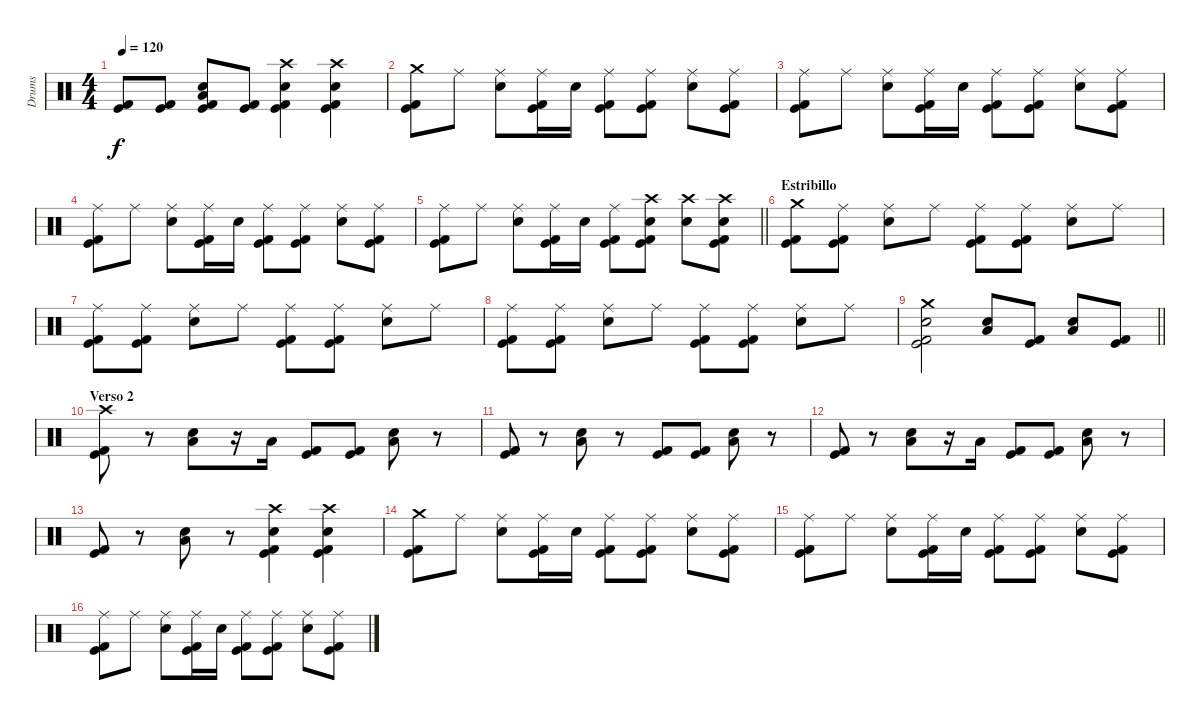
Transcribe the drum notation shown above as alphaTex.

\track ("Drums" "Drums") {instrument percussion}
\staff {score}
\articulation defaults
\ts (4 4)
\tempo 120
\clef neutral
\ks c
("Kick (hit)" "Kick (hit) 2").8{dy f} ("Kick (hit)" "Kick (hit) 2").8 ("Electric Snare (hit)" "Low Tom (hit)" "Kick (hit)" "Kick (hit) 2").8 ("Kick (hit)" "Kick (hit) 2").8 ("Crash high (hit)" "Electric Snare (hit)" "Kick (hit)" "Kick (hit) 2").4 ("Crash high (hit)" "Electric Snare (hit)" "Kick (hit)" "Kick (hit) 2").4 |
("Crash medium (hit)" "Kick (hit)" "Kick (hit) 2").8 "Ride (middle)".8 ("Ride (middle)" "Electric Snare (hit)").8 ("Ride (middle)" "Kick (hit)" "Kick (hit) 2").16 "Electric Snare (hit)".16 ("Ride (middle)" "Kick (hit)" "Kick (hit) 2").8 ("Ride (middle)" "Kick (hit)" "Kick (hit) 2").8 ("Ride (middle)" "Electric Snare (hit)").8 ("Ride (middle)" "Kick (hit)" "Kick (hit) 2").8 |
("Ride (middle)" "Kick (hit)" "Kick (hit) 2").8 "Ride (middle)".8 ("Ride (middle)" "Electric Snare (hit)").8 ("Ride (middle)" "Kick (hit)" "Kick (hit) 2").16 "Electric Snare (hit)".16 ("Ride (middle)" "Kick (hit)" "Kick (hit) 2").8 ("Ride (middle)" "Kick (hit)" "Kick (hit) 2").8 ("Ride (middle)" "Electric Snare (hit)").8 ("Ride (middle)" "Kick (hit)" "Kick (hit) 2").8 |
("Ride (middle)" "Kick (hit)" "Kick (hit) 2").8 "Ride (middle)".8 ("Ride (middle)" "Electric Snare (hit)").8 ("Ride (middle)" "Kick (hit)" "Kick (hit) 2").16 "Electric Snare (hit)".16 ("Ride (middle)" "Kick (hit)" "Kick (hit) 2").8 ("Ride (middle)" "Kick (hit)" "Kick (hit) 2").8 ("Ride (middle)" "Electric Snare (hit)").8 ("Ride (middle)" "Kick (hit)" "Kick (hit) 2").8 |
\barLineRight lightlight
("Ride (middle)" "Kick (hit)" "Kick (hit) 2").8 "Ride (middle)".8 ("Ride (middle)" "Electric Snare (hit)").8 ("Ride (middle)" "Kick (hit)" "Kick (hit) 2").16 "Electric Snare (hit)".16 ("Ride (middle)" "Kick (hit)" "Kick (hit) 2").8 ("Crash high (hit)" "Electric Snare (hit)" "Kick (hit)" "Kick (hit) 2").8 ("Crash high (hit)" "Electric Snare (hit)").8 ("Crash high (hit)" "Electric Snare (hit)" "Kick (hit)" "Kick (hit) 2").8 |
\section ("" "Estribillo")
("Crash medium (hit)" "Kick (hit)" "Kick (hit) 2").8 ("Ride (middle)" "Kick (hit)" "Kick (hit) 2").8 ("Ride (middle)" "Electric Snare (hit)").8 "Ride (middle)".8 ("Ride (middle)" "Kick (hit)" "Kick (hit) 2").8 ("Ride (middle)" "Kick (hit)" "Kick (hit) 2").8 ("Ride (middle)" "Electric Snare (hit)").8 "Ride (middle)".8 |
("Ride (middle)" "Kick (hit)" "Kick (hit) 2").8 ("Ride (middle)" "Kick (hit)" "Kick (hit) 2").8 ("Ride (middle)" "Electric Snare (hit)").8 "Ride (middle)".8 ("Ride (middle)" "Kick (hit)" "Kick (hit) 2").8 ("Ride (middle)" "Kick (hit)" "Kick (hit) 2").8 ("Ride (middle)" "Electric Snare (hit)").8 "Ride (middle)".8 |
("Ride (middle)" "Kick (hit)" "Kick (hit) 2").8 ("Ride (middle)" "Kick (hit)" "Kick (hit) 2").8 ("Ride (middle)" "Electric Snare (hit)").8 "Ride (middle)".8 ("Ride (middle)" "Kick (hit)" "Kick (hit) 2").8 ("Ride (middle)" "Kick (hit)" "Kick (hit) 2").8 ("Ride (middle)" "Electric Snare (hit)").8 "Ride (middle)".8 |
\barLineRight lightlight
("Crash medium (hit)" "Electric Snare (hit)" "Kick (hit)" "Kick (hit) 2").2 ("Electric Snare (hit)" "Low Tom (hit)").8 ("Kick (hit)" "Kick (hit) 2").8 ("Electric Snare (hit)" "Low Tom (hit)").8 ("Kick (hit)" "Kick (hit) 2").8 |
\section ("" "Verso 2")
("Crash high (hit)" "Kick (hit)" "Kick (hit) 2").8 r.8 ("Electric Snare (hit)" "Low Tom (hit)").8 r.16 "Low Tom (hit)".16 ("Kick (hit)" "Kick (hit) 2").8 ("Kick (hit)" "Kick (hit) 2").8 ("Electric Snare (hit)" "Low Tom (hit)").8 r.8 |
("Kick (hit)" "Kick (hit) 2").8 r.8 ("Electric Snare (hit)" "Low Tom (hit)").8 r.8 ("Kick (hit)" "Kick (hit) 2").8 ("Kick (hit)" "Kick (hit) 2").8 ("Electric Snare (hit)" "Low Tom (hit)").8 r.8 |
("Kick (hit)" "Kick (hit) 2").8 r.8 ("Electric Snare (hit)" "Low Tom (hit)").8 r.16 "Low Tom (hit)".16 ("Kick (hit)" "Kick (hit) 2").8 ("Kick (hit)" "Kick (hit) 2").8 ("Electric Snare (hit)" "Low Tom (hit)").8 r.8 |
("Kick (hit)" "Kick (hit) 2").8 r.8 ("Electric Snare (hit)" "Low Tom (hit)").8 r.8 ("Crash high (hit)" "Electric Snare (hit)" "Kick (hit)" "Kick (hit) 2").4 ("Crash high (hit)" "Electric Snare (hit)" "Kick (hit)" "Kick (hit) 2").4 |
("Crash medium (hit)" "Kick (hit)" "Kick (hit) 2").8 "Ride (middle)".8 ("Ride (middle)" "Electric Snare (hit)").8 ("Ride (middle)" "Kick (hit)" "Kick (hit) 2").16 "Electric Snare (hit)".16 ("Ride (middle)" "Kick (hit)" "Kick (hit) 2").8 ("Ride (middle)" "Kick (hit)" "Kick (hit) 2").8 ("Ride (middle)" "Electric Snare (hit)").8 ("Ride (middle)" "Kick (hit)" "Kick (hit) 2").8 |
("Ride (middle)" "Kick (hit)" "Kick (hit) 2").8 "Ride (middle)".8 ("Ride (middle)" "Electric Snare (hit)").8 ("Ride (middle)" "Kick (hit)" "Kick (hit) 2").16 "Electric Snare (hit)".16 ("Ride (middle)" "Kick (hit)" "Kick (hit) 2").8 ("Ride (middle)" "Kick (hit)" "Kick (hit) 2").8 ("Ride (middle)" "Electric Snare (hit)").8 ("Ride (middle)" "Kick (hit)" "Kick (hit) 2").8 |
("Ride (middle)" "Kick (hit)" "Kick (hit) 2").8 "Ride (middle)".8 ("Ride (middle)" "Electric Snare (hit)").8 ("Ride (middle)" "Kick (hit)" "Kick (hit) 2").16 "Electric Snare (hit)".16 ("Ride (middle)" "Kick (hit)" "Kick (hit) 2").8 ("Ride (middle)" "Kick (hit)" "Kick (hit) 2").8 ("Ride (middle)" "Electric Snare (hit)").8 ("Ride (middle)" "Kick (hit)" "Kick (hit) 2").8
